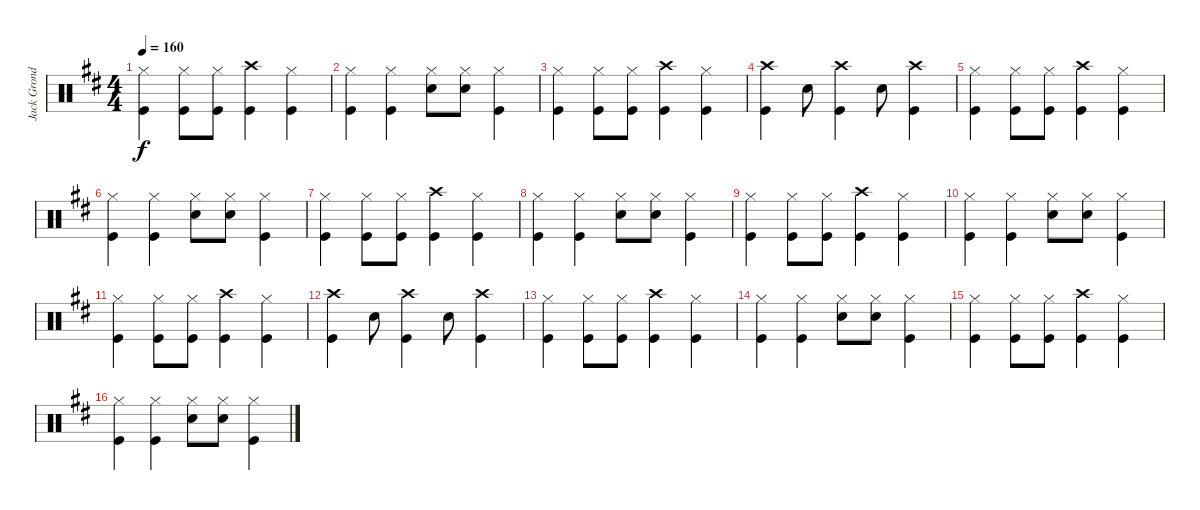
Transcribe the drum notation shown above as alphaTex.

\track ("Jack Grondin Drums" "Jack Grond") {instrument percussion}
\staff {score}
\articulation defaults
\ts (4 4)
\tempo 160
\clef neutral
\ks d
("Hi-Hat (closed)" "Kick (hit)").4{dy f} ("Hi-Hat (closed)" "Kick (hit)").8 ("Hi-Hat (closed)" "Kick (hit)").8 ("Crash high (hit)" "Kick (hit)").4 ("Hi-Hat (closed)" "Kick (hit)").4 |
("Hi-Hat (closed)" "Kick (hit)").4 ("Hi-Hat (closed)" "Kick (hit)").4 ("Hi-Hat (closed)" "Snare (hit) 2").8 ("Hi-Hat (closed)" "Snare (hit) 2").8 ("Hi-Hat (closed)" "Kick (hit)").4 |
("Hi-Hat (closed)" "Kick (hit)").4 ("Hi-Hat (closed)" "Kick (hit)").8 ("Hi-Hat (closed)" "Kick (hit)").8 ("Crash high (hit)" "Kick (hit)").4 ("Hi-Hat (closed)" "Kick (hit)").4 |
("Crash high (hit)" "Kick (hit)").4 "Snare (hit) 2".8 ("Crash high (hit)" "Kick (hit)").4 "Snare (hit) 2".8 ("Crash high (hit)" "Kick (hit)").4 |
("Hi-Hat (closed)" "Kick (hit)").4 ("Hi-Hat (closed)" "Kick (hit)").8 ("Hi-Hat (closed)" "Kick (hit)").8 ("Crash high (hit)" "Kick (hit)").4 ("Hi-Hat (closed)" "Kick (hit)").4 |
("Hi-Hat (closed)" "Kick (hit)").4 ("Hi-Hat (closed)" "Kick (hit)").4 ("Hi-Hat (closed)" "Snare (hit) 2").8 ("Hi-Hat (closed)" "Snare (hit) 2").8 ("Hi-Hat (closed)" "Kick (hit)").4 |
("Hi-Hat (closed)" "Kick (hit)").4 ("Hi-Hat (closed)" "Kick (hit)").8 ("Hi-Hat (closed)" "Kick (hit)").8 ("Crash high (hit)" "Kick (hit)").4 ("Hi-Hat (closed)" "Kick (hit)").4 |
("Hi-Hat (closed)" "Kick (hit)").4 ("Hi-Hat (closed)" "Kick (hit)").4 ("Hi-Hat (closed)" "Snare (hit) 2").8 ("Hi-Hat (closed)" "Snare (hit) 2").8 ("Hi-Hat (closed)" "Kick (hit)").4 |
("Hi-Hat (closed)" "Kick (hit)").4 ("Hi-Hat (closed)" "Kick (hit)").8 ("Hi-Hat (closed)" "Kick (hit)").8 ("Crash high (hit)" "Kick (hit)").4 ("Hi-Hat (closed)" "Kick (hit)").4 |
("Hi-Hat (closed)" "Kick (hit)").4 ("Hi-Hat (closed)" "Kick (hit)").4 ("Hi-Hat (closed)" "Snare (hit) 2").8 ("Hi-Hat (closed)" "Snare (hit) 2").8 ("Hi-Hat (closed)" "Kick (hit)").4 |
("Hi-Hat (closed)" "Kick (hit)").4 ("Hi-Hat (closed)" "Kick (hit)").8 ("Hi-Hat (closed)" "Kick (hit)").8 ("Crash high (hit)" "Kick (hit)").4 ("Hi-Hat (closed)" "Kick (hit)").4 |
("Crash high (hit)" "Kick (hit)").4 "Snare (hit) 2".8 ("Crash high (hit)" "Kick (hit)").4 "Snare (hit) 2".8 ("Crash high (hit)" "Kick (hit)").4 |
("Hi-Hat (closed)" "Kick (hit)").4 ("Hi-Hat (closed)" "Kick (hit)").8 ("Hi-Hat (closed)" "Kick (hit)").8 ("Crash high (hit)" "Kick (hit)").4 ("Hi-Hat (closed)" "Kick (hit)").4 |
("Hi-Hat (closed)" "Kick (hit)").4 ("Hi-Hat (closed)" "Kick (hit)").4 ("Hi-Hat (closed)" "Snare (hit) 2").8 ("Hi-Hat (closed)" "Snare (hit) 2").8 ("Hi-Hat (closed)" "Kick (hit)").4 |
("Hi-Hat (closed)" "Kick (hit)").4 ("Hi-Hat (closed)" "Kick (hit)").8 ("Hi-Hat (closed)" "Kick (hit)").8 ("Crash high (hit)" "Kick (hit)").4 ("Hi-Hat (closed)" "Kick (hit)").4 |
("Hi-Hat (closed)" "Kick (hit)").4 ("Hi-Hat (closed)" "Kick (hit)").4 ("Hi-Hat (closed)" "Snare (hit) 2").8 ("Hi-Hat (closed)" "Snare (hit) 2").8 ("Hi-Hat (closed)" "Kick (hit)").4
